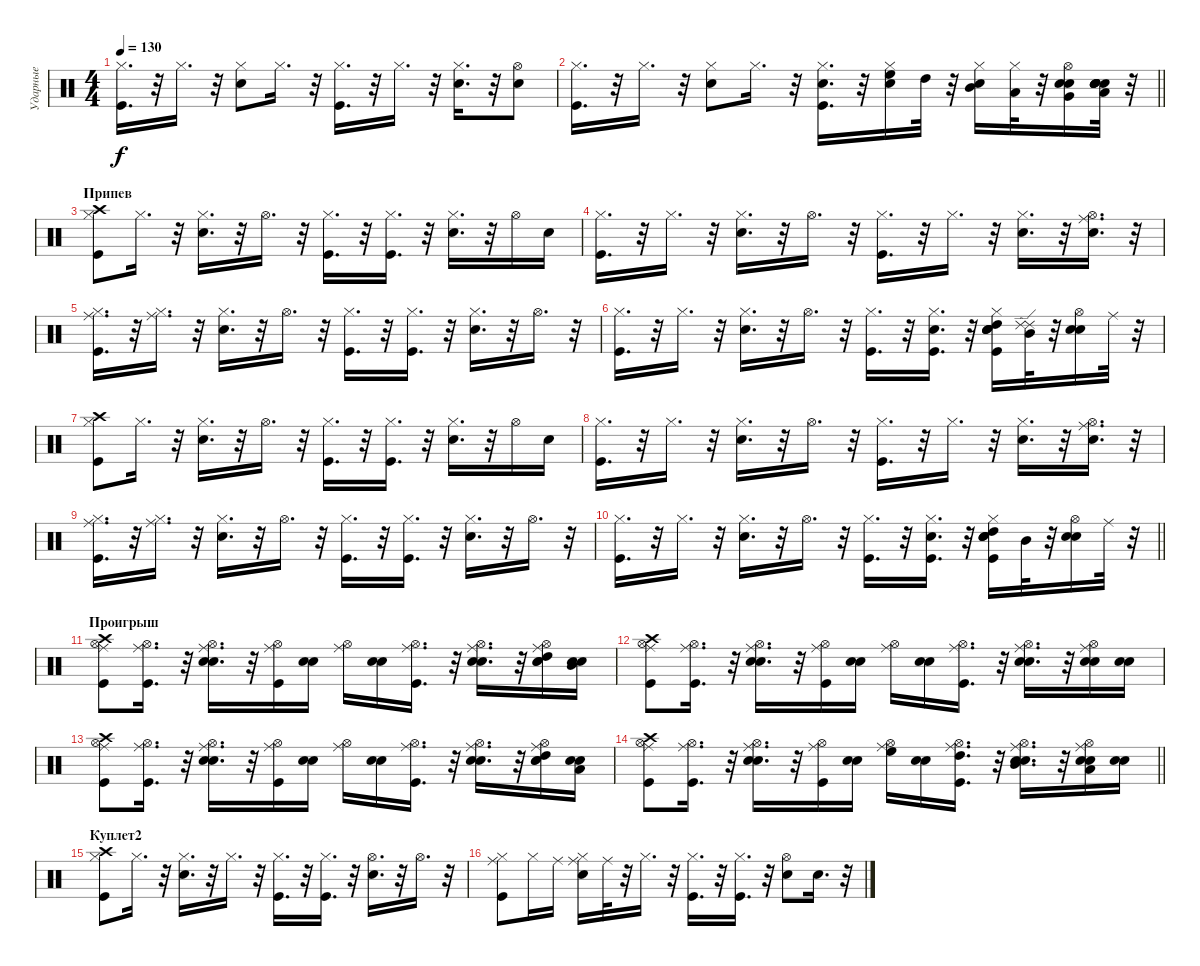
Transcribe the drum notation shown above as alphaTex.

\track ("Ударные" "Ударные") {instrument percussion}
\staff {score}
\articulation defaults
\ts (4 4)
\tempo 130
\clef neutral
\ks c
("Hi-Hat (closed)" "Kick (hit)").16{d dy f} r.32 "Hi-Hat (closed)".16{d} r.32 ("Hi-Hat (closed)" "Snare (hit) 2").8 "Hi-Hat (closed)".16{d} r.32 ("Hi-Hat (closed)" "Kick (hit)").16{d} r.32 "Hi-Hat (closed)".16{d} r.32 ("Hi-Hat (closed)" "Snare (hit) 2").16{d} r.32 ("Snare (hit) 2" "Hi-Hat (open)").8 |
\barLineRight lightlight
("Hi-Hat (closed)" "Kick (hit)").16{d} r.32 "Hi-Hat (closed)".16{d} r.32 ("Hi-Hat (closed)" "Snare (hit) 2").8 "Hi-Hat (closed)".16{d} r.32 ("Snare (hit) 2" "Hi-Hat (closed)" "Kick (hit)").16{d} r.32 ("High Floor Tom (hit)" "Snare (hit) 2" "Hi-Hat (closed)").16 "High Tom (hit)".32 r.32 ("Mid Tom (hit)" "Hi-Hat (closed)" "Snare (hit) 2").16 ("Low Tom (hit)" "Hi-Hat (closed)").32 r.32 ("Very Low Tom (hit)" "Hi-Hat (open)" "Snare (hit) 2" "Snare (hit) 2").16 ("Low Floor Tom (hit)" "Snare (hit) 2" "Snare (hit) 2" "Snare (hit) 2" "Electric Snare (hit)" "Electric Snare (hit)").32 r.32 |
\section ("" "Припев")
("Hi-Hat (closed)" "Crash high (hit)" "Kick (hit)").8 "Hi-Hat (closed)".16{d} r.32 ("Hi-Hat (closed)" "Snare (hit) 2").16{d} r.32 "Hi-Hat (open)".16{d} r.32 ("Hi-Hat (closed)" "Kick (hit)").16{d} r.32 ("Hi-Hat (closed)" "Kick (hit)").16{d} r.32 ("Hi-Hat (closed)" "Snare (hit) 2").16{d} r.32 "Hi-Hat (open)".16 "Snare (hit) 2".16 |
("Hi-Hat (closed)" "Kick (hit)").16{d} r.32 "Hi-Hat (closed)".16{d} r.32 ("Hi-Hat (closed)" "Snare (hit) 2").16{d} r.32 "Hi-Hat (open)".16{d} r.32 ("Hi-Hat (closed)" "Kick (hit)").16{d} r.32 "Hi-Hat (closed)".16{d} r.32 ("Hi-Hat (closed)" "Snare (hit) 2").16{d} r.32 ("Ride (middle)" "Hi-Hat (open)" "Snare (hit) 2").16{d} r.32 |
("Ride (middle)" "Hi-Hat (closed)" "Kick (hit)").16{d} r.32 ("Hi-Hat (closed)" "Ride (middle)").16{d} r.32 ("Hi-Hat (closed)" "Snare (hit) 2").16{d} r.32 "Hi-Hat (open)".16{d} r.32 ("Hi-Hat (closed)" "Kick (hit)").16{d} r.32 ("Hi-Hat (closed)" "Kick (hit)").16{d} r.32 ("Hi-Hat (closed)" "Snare (hit) 2").16{d} r.32 "Hi-Hat (open)".16{d} r.32 |
("Hi-Hat (closed)" "Kick (hit)").16{d} r.32 "Hi-Hat (closed)".16{d} r.32 ("Hi-Hat (closed)" "Snare (hit) 2").16{d} r.32 "Hi-Hat (open)".16{d} r.32 ("Hi-Hat (closed)" "Kick (hit)").16{d} r.32 ("Hi-Hat (closed)" "Snare (hit) 2" "Kick (hit)").16{d} r.32 ("High Tom (hit)" "Hi-Hat (closed)" "Hand Clap (hit)" "Electric Snare (hit)" "Snare (hit) 2" "Kick (hit)").16 ("Ride (edge) 2" "Ride (edge) 2" "Mid Tom (hit)").32 r.32 ("Hi-Hat (open)" "Hand Clap (hit)" "Snare (hit) 2").16 "Ride (middle)".32 r.32 |
("Hi-Hat (closed)" "Crash high (hit)" "Kick (hit)").8 "Hi-Hat (closed)".16{d} r.32 ("Hi-Hat (closed)" "Snare (hit) 2").16{d} r.32 "Hi-Hat (open)".16{d} r.32 ("Hi-Hat (closed)" "Kick (hit)").16{d} r.32 ("Hi-Hat (closed)" "Kick (hit)").16{d} r.32 ("Hi-Hat (closed)" "Snare (hit) 2").16{d} r.32 "Hi-Hat (open)".16 "Snare (hit) 2".16 |
("Hi-Hat (closed)" "Kick (hit)").16{d} r.32 "Hi-Hat (closed)".16{d} r.32 ("Hi-Hat (closed)" "Snare (hit) 2").16{d} r.32 "Hi-Hat (open)".16{d} r.32 ("Hi-Hat (closed)" "Kick (hit)").16{d} r.32 "Hi-Hat (closed)".16{d} r.32 ("Hi-Hat (closed)" "Snare (hit) 2").16{d} r.32 ("Ride (middle)" "Hi-Hat (open)" "Snare (hit) 2").16{d} r.32 |
("Ride (middle)" "Hi-Hat (closed)" "Kick (hit)").16{d} r.32 ("Hi-Hat (closed)" "Ride (middle)").16{d} r.32 ("Hi-Hat (closed)" "Snare (hit) 2").16{d} r.32 "Hi-Hat (open)".16{d} r.32 ("Hi-Hat (closed)" "Kick (hit)").16{d} r.32 ("Hi-Hat (closed)" "Kick (hit)").16{d} r.32 ("Hi-Hat (closed)" "Snare (hit) 2").16{d} r.32 "Hi-Hat (open)".16{d} r.32 |
\barLineRight lightlight
("Hi-Hat (closed)" "Kick (hit)").16{d} r.32 "Hi-Hat (closed)".16{d} r.32 ("Hi-Hat (closed)" "Snare (hit) 2").16{d} r.32 "Hi-Hat (open)".16{d} r.32 ("Hi-Hat (closed)" "Kick (hit)").16{d} r.32 ("Hi-Hat (closed)" "Snare (hit) 2" "Kick (hit)").16{d} r.32 ("High Tom (hit)" "Hi-Hat (closed)" "Hand Clap (hit)" "Electric Snare (hit)" "Snare (hit) 2" "Kick (hit)").16 "Mid Tom (hit)".32 r.32 ("Hi-Hat (open)" "Hand Clap (hit)" "Snare (hit) 2").16 "Ride (middle)".32 r.32 |
\section ("" "Проигрыш")
("Ride (middle)" "Kick (hit)" "Hi-Hat (open)" "Crash high (hit)").8 ("Kick (hit)" "Ride (middle)" "Hi-Hat (open)").16{d} r.32 ("Electric Snare (hit)" "Snare (hit) 2" "Ride (middle)" "Hi-Hat (open)").16{d} r.32 ("Kick (hit)" "Ride (middle)" "Hi-Hat (open)").16 ("Electric Snare (hit)" "Snare (hit) 2").16 ("Ride (middle)" "Hi-Hat (open)").16 ("Electric Snare (hit)" "Snare (hit) 2").16 ("Kick (hit)" "Ride (middle)" "Hi-Hat (open)").16{d} r.32 ("Electric Snare (hit)" "Snare (hit) 2" "Ride (middle)" "Hi-Hat (open)").16{d} r.32 ("Electric Snare (hit)" "High Tom (hit)" "Snare (hit) 2" "Ride (middle)" "Hi-Hat (open)").16 ("Electric Snare (hit)" "Mid Tom (hit)" "Snare (hit) 2").16 |
("Ride (middle)" "Kick (hit)" "Hi-Hat (open)" "Crash high (hit)").8 ("Kick (hit)" "Ride (middle)" "Hi-Hat (open)").16{d} r.32 ("Electric Snare (hit)" "Snare (hit) 2" "Ride (middle)" "Hi-Hat (open)").16{d} r.32 ("Kick (hit)" "Ride (middle)" "Hi-Hat (open)").16 ("Electric Snare (hit)" "Snare (hit) 2").16 ("Ride (middle)" "Hi-Hat (open)").16 ("Electric Snare (hit)" "Snare (hit) 2").16 ("Kick (hit)" "Ride (middle)" "Hi-Hat (open)").16{d} r.32 ("Electric Snare (hit)" "Snare (hit) 2" "Ride (middle)" "Hi-Hat (open)").16{d} r.32 ("Electric Snare (hit)" "Snare (hit) 2" "Ride (middle)" "Hi-Hat (open)").16 ("Electric Snare (hit)" "Snare (hit) 2").16 |
("Ride (middle)" "Kick (hit)" "Hi-Hat (open)" "Crash high (hit)").8 ("Kick (hit)" "Ride (middle)" "Hi-Hat (open)").16{d} r.32 ("Electric Snare (hit)" "Snare (hit) 2" "Ride (middle)" "Hi-Hat (open)").16{d} r.32 ("Kick (hit)" "Ride (middle)" "Hi-Hat (open)").16 ("Electric Snare (hit)" "Snare (hit) 2").16 ("Ride (middle)" "Hi-Hat (open)").16 ("Electric Snare (hit)" "Snare (hit) 2").16 ("Kick (hit)" "Ride (middle)" "Hi-Hat (open)").16{d} r.32 ("Electric Snare (hit)" "Snare (hit) 2" "Ride (middle)" "Hi-Hat (open)").16{d} r.32 ("Electric Snare (hit)" "High Tom (hit)" "Snare (hit) 2" "Ride (middle)" "Hi-Hat (open)").16 ("Electric Snare (hit)" "Low Tom (hit)" "Snare (hit) 2").16 |
\barLineRight lightlight
("Ride (middle)" "Kick (hit)" "Hi-Hat (open)" "Crash high (hit)").8 ("Kick (hit)" "Ride (middle)" "Hi-Hat (open)").16{d} r.32 ("Electric Snare (hit)" "Snare (hit) 2" "Ride (middle)" "Hi-Hat (open)").16{d} r.32 ("Kick (hit)" "Ride (middle)" "Hi-Hat (open)").16 ("Electric Snare (hit)" "Snare (hit) 2").16 ("High Floor Tom (hit)" "Ride (middle)" "Hi-Hat (open)").16 ("Electric Snare (hit)" "Snare (hit) 2").16 ("High Tom (hit)" "Kick (hit)" "Ride (middle)" "Hi-Hat (open)").16{d} r.32 ("Electric Snare (hit)" "Mid Tom (hit)" "Snare (hit) 2" "Ride (middle)" "Hi-Hat (open)").16{d} r.32 ("Electric Snare (hit)" "Snare (hit) 2" "Low Tom (hit)" "Ride (middle)" "Hi-Hat (open)").16 ("Electric Snare (hit)" "Snare (hit) 2").16 |
\section ("" "Куплет2")
("Hi-Hat (closed)" "Kick (hit)" "Crash high (hit)").8 "Hi-Hat (closed)".16{d} r.32 ("Snare (hit) 2" "Hi-Hat (closed)").16{d} r.32 "Hi-Hat (closed)".16{d} r.32 ("Kick (hit)" "Hi-Hat (closed)").16{d} r.32 ("Kick (hit)" "Hi-Hat (closed)").16{d} r.32 ("Hi-Hat (open)" "Snare (hit) 2").16{d} r.32 "Hi-Hat (open)".16{d} r.32 |
("Hi-Hat (closed)" "Ride (middle)" "Kick (hit)").8 "Hi-Hat (closed)".16 "Ride (middle)".16 ("Ride (middle)" "Hi-Hat (closed)" "Snare (hit) 2").16 "Ride (middle)".32 r.32 "Hi-Hat (closed)".16{d} r.32 ("Kick (hit)" "Hi-Hat (closed)").16{d} r.32 ("Kick (hit)" "Hi-Hat (closed)").16{d} r.32 ("Hi-Hat (open)" "Snare (hit) 2").8 "Snare (hit) 2".16{d} r.32
